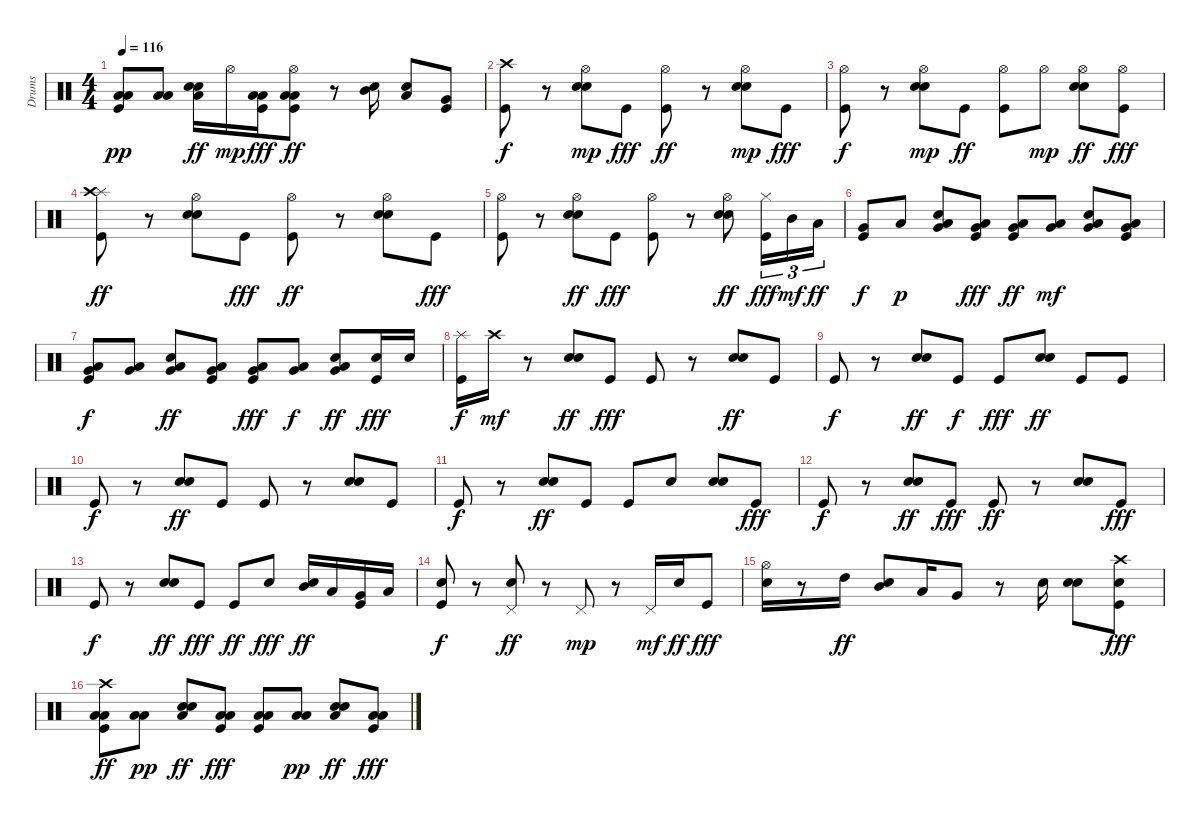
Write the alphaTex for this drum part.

\track ("Drums" "Drums") {instrument percussion}
\staff {score}
\articulation defaults
\ts (4 4)
\tempo 116
\clef neutral
\ks c
("Kick (hit)" "Low Tom (hit)" "Low Floor Tom (hit)").8{dy pp} ("Low Tom (hit)" "Low Floor Tom (hit)").8 ("Low Floor Tom (hit)" "Hand Clap (hit)" "Snare (hit) 2").16{dy ff} "Hi-Hat (open)".16{dy mp} ("Low Tom (hit)" "Low Floor Tom (hit)" "Kick (hit)").16{dy fff} ("Hi-Hat (open)" "Low Tom (hit)" "Low Floor Tom (hit)" "Kick (hit)").8{dy ff} r.8 ("Snare (hit) 2" "Mid Tom (hit)").16 ("Hand Clap (hit)" "Low Tom (hit)").8 ("Kick (hit)" "Very Low Tom (hit)").8 |
("Kick (hit)" "Crash high (hit)").8{dy f} r.8 ("Hand Clap (hit)" "Snare (hit) 2" "Hi-Hat (open)").8{dy mp} "Kick (hit)".8{dy fff} ("Hi-Hat (open)" "Kick (hit)").8{dy ff} r.8 ("Hand Clap (hit)" "Snare (hit) 2" "Hi-Hat (open)").8{dy mp} "Kick (hit)".8{dy fff} |
("Hi-Hat (open)" "Kick (hit)").8{dy f} r.8 ("Hand Clap (hit)" "Snare (hit) 2" "Hi-Hat (open)").8{dy mp} "Kick (hit)".8{dy ff} ("Hi-Hat (open)" "Kick (hit)").8 "Hi-Hat (open)".8{dy mp} ("Hi-Hat (open)" "Hand Clap (hit)" "Snare (hit) 2").8{dy ff} ("Hi-Hat (open)" "Kick (hit)").8{dy fff} |
("Kick (hit)" "Splash (hit)" "Crash high (hit)").8{dy ff} r.8 ("Snare (hit) 2" "Hi-Hat (open)" "Hand Clap (hit)").8 "Kick (hit)".8{dy fff} ("Hi-Hat (open)" "Kick (hit)").8{dy ff} r.8 ("Snare (hit) 2" "Hi-Hat (open)" "Hand Clap (hit)").8 "Kick (hit)".8{dy fff} |
("Hi-Hat (open)" "Kick (hit)").8 r.8 ("Snare (hit) 2" "Hi-Hat (open)" "Hand Clap (hit)").8{dy ff} "Kick (hit)".8{dy fff} ("Hi-Hat (open)" "Kick (hit)").8 r.8 ("Hi-Hat (open)" "Hand Clap (hit)" "Snare (hit) 2").8{dy ff} ("Hi-Hat (closed)" "Kick (hit)").16{tu (3 2) dy fff} "Mid Tom (hit)".16{tu (3 2) dy mf} "Low Tom (hit)".16{tu (3 2) dy ff} |
("Very Low Tom (hit)" "Kick (hit)").8{dy f} "Low Tom (hit)".8{dy p} ("Hand Clap (hit)" "Very Low Tom (hit)" "Low Tom (hit)").8 ("Very Low Tom (hit)" "Low Tom (hit)" "Kick (hit)").8{dy fff} ("Very Low Tom (hit)" "Low Tom (hit)" "Kick (hit)").8{dy ff} ("Very Low Tom (hit)" "Low Tom (hit)").8{dy mf} ("Hand Clap (hit)" "Very Low Tom (hit)" "Low Tom (hit)").8 ("Kick (hit)" "Very Low Tom (hit)" "Low Tom (hit)").8 |
("Very Low Tom (hit)" "Low Tom (hit)" "Kick (hit)").8{dy f} ("Very Low Tom (hit)" "Low Tom (hit)").8 ("Hand Clap (hit)" "Very Low Tom (hit)" "Low Tom (hit)").8{dy ff} ("Kick (hit)" "Very Low Tom (hit)" "Low Tom (hit)").8 ("Very Low Tom (hit)" "Low Tom (hit)" "Kick (hit)").8{dy fff} ("Very Low Tom (hit)" "Low Tom (hit)").8{dy f} ("Very Low Tom (hit)" "Low Tom (hit)" "Hand Clap (hit)").8{dy ff} ("Snare (hit) 2" "Kick (hit)").16{dy fff} "Snare (hit) 2".16 |
("Kick (hit)" "Splash (hit)").16{dy f} "Crash high (hit)".16{dy mf} r.8 ("Snare (hit) 2" "Hand Clap (hit)").8{dy ff} "Kick (hit)".8{dy fff} "Kick (hit)".8 r.8 ("Hand Clap (hit)" "Snare (hit) 2").8{dy ff} "Kick (hit)".8 |
"Kick (hit)".8{dy f} r.8 ("Hand Clap (hit)" "Snare (hit) 2").8{dy ff} "Kick (hit)".8{dy f} "Kick (hit)".8{dy fff} ("Hand Clap (hit)" "Snare (hit) 2").8{dy ff} "Kick (hit)".8 "Kick (hit)".8 |
"Kick (hit)".8{dy f} r.8 ("Snare (hit) 2" "Hand Clap (hit)").8{dy ff} "Kick (hit)".8 "Kick (hit)".8 r.8 ("Snare (hit) 2" "Hand Clap (hit)").8 "Kick (hit)".8 |
"Kick (hit)".8{dy f} r.8 ("Snare (hit) 2" "Hand Clap (hit)").8{dy ff} "Kick (hit)".8 "Kick (hit)".8 "Snare (hit) 2".8 ("Hand Clap (hit)" "Snare (hit) 2").8 "Kick (hit)".8{dy fff} |
"Kick (hit)".8{dy f} r.8 ("Hand Clap (hit)" "Snare (hit) 2").8{dy ff} "Kick (hit)".8{dy fff} "Kick (hit)".8{dy ff} r.8 ("Snare (hit) 2" "Hand Clap (hit)").8 "Kick (hit)".8{dy fff} |
"Kick (hit)".8{dy f} r.8 ("Snare (hit) 2" "Hand Clap (hit)").8{dy ff} "Kick (hit)".8{dy fff} "Kick (hit)".8{dy ff} "Snare (hit) 2".8{dy fff} ("Mid Tom (hit)" "Hand Clap (hit)").16{dy ff} "Low Tom (hit)".16 ("Very Low Tom (hit)" "Kick (hit)").16 "Low Floor Tom (hit)".16 |
("Kick (hit)" "Snare (hit) 2").8{dy f} r.8 ("Pedal Hi-Hat (hit)" "Hand Clap (hit)").8{dy ff} r.8 "Pedal Hi-Hat (hit)".8{dy mp} r.8 "Pedal Hi-Hat (hit)".16{dy mf} "Hand Clap (hit)".16{dy ff} "Kick (hit)".8{dy fff} |
("Hi-Hat (open)" "Snare (hit) 2").16 r.8 "High Tom (hit)".16{dy ff} ("Mid Tom (hit)" "Hand Clap (hit)").8 "Low Tom (hit)".16 "Very Low Tom (hit)".8 r.8 "Snare (hit) 2".16 ("Snare (hit) 2" "Hand Clap (hit)").8 ("Crash high (hit)" "Snare (hit) 2" "Kick (hit)").8{dy fff} |
("Low Tom (hit)" "Low Floor Tom (hit)" "Kick (hit)" "Crash high (hit)").8{dy ff} ("Low Tom (hit)" "Low Floor Tom (hit)").8{dy pp} ("Snare (hit) 2" "Low Floor Tom (hit)" "Hand Clap (hit)").8{dy ff} ("Low Tom (hit)" "Low Floor Tom (hit)" "Kick (hit)").8{dy fff} ("Low Tom (hit)" "Low Floor Tom (hit)" "Kick (hit)").8 ("Low Tom (hit)" "Low Floor Tom (hit)").8{dy pp} ("Low Floor Tom (hit)" "Snare (hit) 2" "Hand Clap (hit)").8{dy ff} ("Low Tom (hit)" "Low Floor Tom (hit)" "Kick (hit)").8{dy fff}
